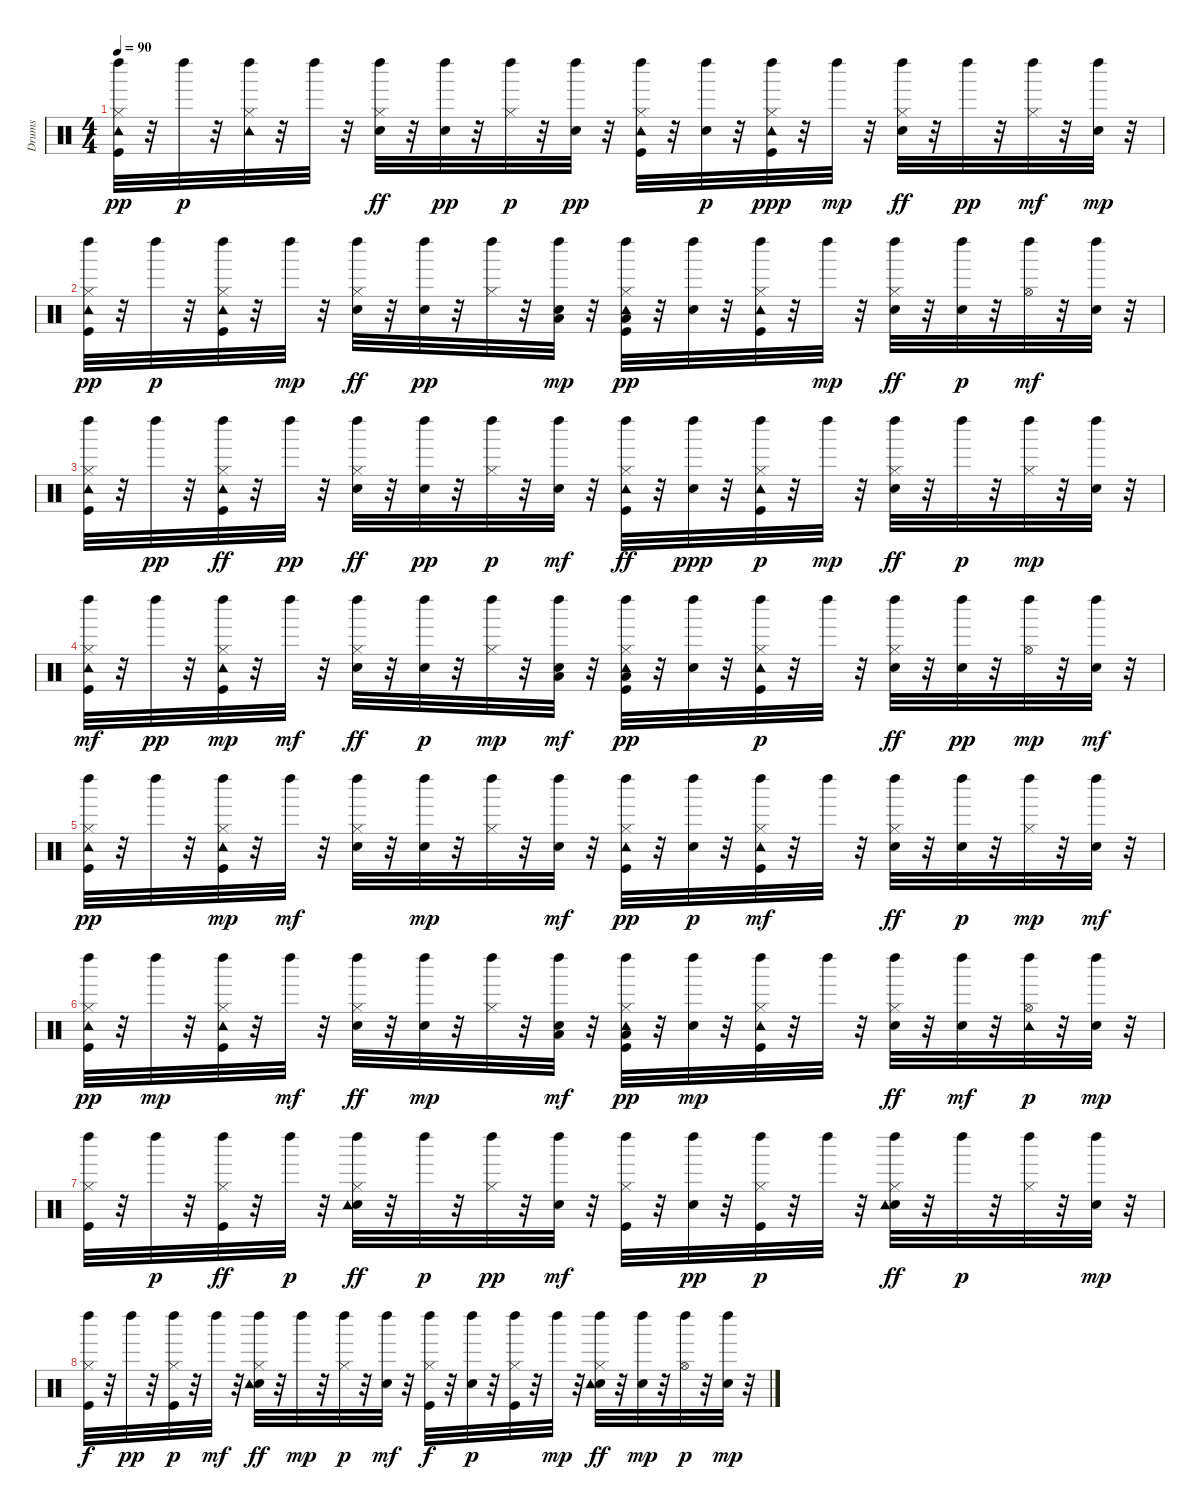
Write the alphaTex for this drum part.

\track ("Drums" "Drums") {instrument percussion}
\staff {score}
\articulation defaults
\ts (4 4)
\tempo 90
\clef neutral
\ks c
("Left Maraca (hit)" "Kick (hit)" "Hi-Hat (closed)" "Tambourine (hit)").32{dy pp} r.32 "Left Maraca (hit)".32{dy p} r.32 ("Hi-Hat (closed)" "Left Maraca (hit)" "Tambourine (hit)").32 r.32 "Left Maraca (hit)".32 r.32 ("Hi-Hat (closed)" "Left Maraca (hit)" "Electric Snare (hit)").32{dy ff} r.32 ("Electric Snare (hit)" "Left Maraca (hit)").32{dy pp} r.32 ("Hi-Hat (closed)" "Left Maraca (hit)").32{dy p} r.32 ("Electric Snare (hit)" "Left Maraca (hit)").32{dy pp} r.32 ("Hi-Hat (closed)" "Kick (hit)" "Tambourine (hit)" "Left Maraca (hit)").32 r.32 ("Electric Snare (hit)" "Left Maraca (hit)").32{dy p} r.32 ("Tambourine (hit)" "Kick (hit)" "Hi-Hat (closed)" "Left Maraca (hit)").32{dy ppp} r.32 "Left Maraca (hit)".32{dy mp} r.32 ("Left Maraca (hit)" "Hi-Hat (closed)" "Electric Snare (hit)").32{dy ff} r.32 "Left Maraca (hit)".32{dy pp} r.32 ("Left Maraca (hit)" "Hi-Hat (closed)").32{dy mf} r.32 ("Left Maraca (hit)" "Electric Snare (hit)").32{dy mp} r.32 |
("Left Maraca (hit)" "Hi-Hat (closed)" "Kick (hit)" "Tambourine (hit)").32{dy pp} r.32 "Left Maraca (hit)".32{dy p} r.32 ("Kick (hit)" "Left Maraca (hit)" "Hi-Hat (closed)" "Tambourine (hit)").32 r.32 "Left Maraca (hit)".32{dy mp} r.32 ("Electric Snare (hit)" "Left Maraca (hit)" "Hi-Hat (closed)").32{dy ff} r.32 ("Electric Snare (hit)" "Left Maraca (hit)").32{dy pp} r.32 ("Hi-Hat (closed)" "Left Maraca (hit)").32 r.32 ("Electric Snare (hit)" "Left Maraca (hit)" "Low Tom (hit)").32{dy mp} r.32 ("Kick (hit)" "Low Floor Tom (hit)" "Left Maraca (hit)" "Hi-Hat (closed)" "Tambourine (hit)").32{dy pp} r.32 ("Electric Snare (hit)" "Left Maraca (hit)").32 r.32 ("Hi-Hat (closed)" "Kick (hit)" "Tambourine (hit)" "Left Maraca (hit)").32 r.32 "Left Maraca (hit)".32{dy mp} r.32 ("Electric Snare (hit)" "Hi-Hat (closed)" "Left Maraca (hit)").32{dy ff} r.32 ("Electric Snare (hit)" "Left Maraca (hit)").32{dy p} r.32 ("Hi-Hat (open)" "Left Maraca (hit)").32{dy mf} r.32 ("Electric Snare (hit)" "Left Maraca (hit)").32 r.32 |
("Hi-Hat (closed)" "Kick (hit)" "Tambourine (hit)" "Left Maraca (hit)").32 r.32 "Left Maraca (hit)".32{dy pp} r.32 ("Hi-Hat (closed)" "Tambourine (hit)" "Left Maraca (hit)" "Kick (hit)").32{dy ff} r.32 "Left Maraca (hit)".32{dy pp} r.32 ("Electric Snare (hit)" "Left Maraca (hit)" "Hi-Hat (closed)").32{dy ff} r.32 ("Electric Snare (hit)" "Left Maraca (hit)").32{dy pp} r.32 ("Hi-Hat (closed)" "Left Maraca (hit)").32{dy p} r.32 ("Electric Snare (hit)" "Left Maraca (hit)").32{dy mf} r.32 ("Hi-Hat (closed)" "Tambourine (hit)" "Kick (hit)" "Left Maraca (hit)").32{dy ff} r.32 ("Electric Snare (hit)" "Left Maraca (hit)").32{dy ppp} r.32 ("Hi-Hat (closed)" "Kick (hit)" "Tambourine (hit)" "Left Maraca (hit)").32{dy p} r.32 "Left Maraca (hit)".32{dy mp} r.32 ("Electric Snare (hit)" "Hi-Hat (closed)" "Left Maraca (hit)").32{dy ff} r.32 "Left Maraca (hit)".32{dy p} r.32 ("Hi-Hat (closed)" "Left Maraca (hit)").32{dy mp} r.32 ("Left Maraca (hit)" "Electric Snare (hit)").32 r.32 |
("Hi-Hat (closed)" "Kick (hit)" "Tambourine (hit)" "Left Maraca (hit)").32{dy mf} r.32 "Left Maraca (hit)".32{dy pp} r.32 ("Kick (hit)" "Hi-Hat (closed)" "Tambourine (hit)" "Left Maraca (hit)").32{dy mp} r.32 "Left Maraca (hit)".32{dy mf} r.32 ("Left Maraca (hit)" "Hi-Hat (closed)" "Electric Snare (hit)").32{dy ff} r.32 ("Electric Snare (hit)" "Left Maraca (hit)").32{dy p} r.32 ("Left Maraca (hit)" "Hi-Hat (closed)").32{dy mp} r.32 ("Electric Snare (hit)" "Left Maraca (hit)" "Low Tom (hit)").32{dy mf} r.32 ("Hi-Hat (closed)" "Left Maraca (hit)" "Kick (hit)" "Low Floor Tom (hit)" "Tambourine (hit)").32{dy pp} r.32 ("Electric Snare (hit)" "Left Maraca (hit)").32 r.32 ("Hi-Hat (closed)" "Kick (hit)" "Left Maraca (hit)" "Tambourine (hit)").32{dy p} r.32 "Left Maraca (hit)".32 r.32 ("Electric Snare (hit)" "Left Maraca (hit)" "Hi-Hat (closed)").32{dy ff} r.32 ("Electric Snare (hit)" "Left Maraca (hit)").32{dy pp} r.32 ("Hi-Hat (open)" "Left Maraca (hit)").32{dy mp} r.32 ("Electric Snare (hit)" "Left Maraca (hit)").32{dy mf} r.32 |
("Hi-Hat (closed)" "Left Maraca (hit)" "Kick (hit)" "Tambourine (hit)").32{dy pp} r.32 "Left Maraca (hit)".32 r.32 ("Hi-Hat (closed)" "Kick (hit)" "Tambourine (hit)" "Left Maraca (hit)").32{dy mp} r.32 "Left Maraca (hit)".32{dy mf} r.32 ("Electric Snare (hit)" "Hi-Hat (closed)" "Left Maraca (hit)").32 r.32 ("Electric Snare (hit)" "Left Maraca (hit)").32{dy mp} r.32 ("Hi-Hat (closed)" "Left Maraca (hit)").32 r.32 ("Electric Snare (hit)" "Left Maraca (hit)").32{dy mf} r.32 ("Kick (hit)" "Hi-Hat (closed)" "Tambourine (hit)" "Left Maraca (hit)").32{dy pp} r.32 ("Electric Snare (hit)" "Left Maraca (hit)").32{dy p} r.32 ("Hi-Hat (closed)" "Kick (hit)" "Tambourine (hit)" "Left Maraca (hit)").32{dy mf} r.32 "Left Maraca (hit)".32 r.32 ("Electric Snare (hit)" "Hi-Hat (closed)" "Left Maraca (hit)").32{dy ff} r.32 ("Electric Snare (hit)" "Left Maraca (hit)").32{dy p} r.32 ("Hi-Hat (closed)" "Left Maraca (hit)").32{dy mp} r.32 ("Electric Snare (hit)" "Left Maraca (hit)").32{dy mf} r.32 |
("Hi-Hat (closed)" "Kick (hit)" "Tambourine (hit)" "Left Maraca (hit)").32{dy pp} r.32 "Left Maraca (hit)".32{dy mp} r.32 ("Tambourine (hit)" "Kick (hit)" "Hi-Hat (closed)" "Left Maraca (hit)").32 r.32 "Left Maraca (hit)".32{dy mf} r.32 ("Electric Snare (hit)" "Hi-Hat (closed)" "Left Maraca (hit)").32{dy ff} r.32 ("Electric Snare (hit)" "Left Maraca (hit)").32{dy mp} r.32 ("Hi-Hat (closed)" "Left Maraca (hit)").32 r.32 ("Electric Snare (hit)" "Left Maraca (hit)" "Low Tom (hit)").32{dy mf} r.32 ("Hi-Hat (closed)" "Kick (hit)" "Low Floor Tom (hit)" "Tambourine (hit)" "Left Maraca (hit)").32{dy pp} r.32 ("Left Maraca (hit)" "Electric Snare (hit)").32{dy mp} r.32 ("Hi-Hat (closed)" "Kick (hit)" "Tambourine (hit)" "Left Maraca (hit)").32 r.32 "Left Maraca (hit)".32 r.32 ("Hi-Hat (closed)" "Electric Snare (hit)" "Left Maraca (hit)").32{dy ff} r.32 ("Electric Snare (hit)" "Left Maraca (hit)").32{dy mf} r.32 ("Hi-Hat (open)" "Left Maraca (hit)" "Tambourine (hit)").32{dy p} r.32 ("Electric Snare (hit)" "Left Maraca (hit)").32{dy mp} r.32 |
("Hi-Hat (closed)" "Kick (hit)" "Left Maraca (hit)").32 r.32 "Left Maraca (hit)".32{dy p} r.32 ("Hi-Hat (closed)" "Left Maraca (hit)" "Kick (hit)").32{dy ff} r.32 "Left Maraca (hit)".32{dy p} r.32 ("Electric Snare (hit)" "Tambourine (hit)" "Left Maraca (hit)" "Hi-Hat (closed)").32{dy ff} r.32 "Left Maraca (hit)".32{dy p} r.32 ("Left Maraca (hit)" "Hi-Hat (closed)").32{dy pp} r.32 ("Left Maraca (hit)" "Electric Snare (hit)").32{dy mf} r.32 ("Left Maraca (hit)" "Hi-Hat (closed)" "Kick (hit)").32 r.32 ("Electric Snare (hit)" "Left Maraca (hit)").32{dy pp} r.32 ("Hi-Hat (closed)" "Kick (hit)" "Left Maraca (hit)").32{dy p} r.32 "Left Maraca (hit)".32 r.32 ("Electric Snare (hit)" "Tambourine (hit)" "Hi-Hat (closed)" "Left Maraca (hit)").32{dy ff} r.32 "Left Maraca (hit)".32{dy p} r.32 ("Hi-Hat (closed)" "Left Maraca (hit)").32 r.32 ("Electric Snare (hit)" "Left Maraca (hit)").32{dy mp} r.32 |
("Hi-Hat (closed)" "Kick (hit)" "Left Maraca (hit)").32{dy f} r.32 "Left Maraca (hit)".32{dy pp} r.32 ("Kick (hit)" "Left Maraca (hit)" "Hi-Hat (closed)").32{dy p} r.32 "Left Maraca (hit)".32{dy mf} r.32 ("Electric Snare (hit)" "Tambourine (hit)" "Left Maraca (hit)" "Hi-Hat (closed)").32{dy ff} r.32 "Left Maraca (hit)".32{dy mp} r.32 ("Hi-Hat (closed)" "Left Maraca (hit)").32{dy p} r.32 ("Electric Snare (hit)" "Left Maraca (hit)").32{dy mf} r.32 ("Hi-Hat (closed)" "Kick (hit)" "Left Maraca (hit)").32{dy f} r.32 ("Electric Snare (hit)" "Left Maraca (hit)").32{dy p} r.32 ("Kick (hit)" "Hi-Hat (closed)" "Left Maraca (hit)").32 r.32 "Left Maraca (hit)".32{dy mp} r.32 ("Electric Snare (hit)" "Tambourine (hit)" "Left Maraca (hit)" "Hi-Hat (closed)").32{dy ff} r.32 ("Electric Snare (hit)" "Left Maraca (hit)").32{dy mp} r.32 ("Hi-Hat (open)" "Left Maraca (hit)").32{dy p} r.32 ("Electric Snare (hit)" "Left Maraca (hit)").32{dy mp} r.32
